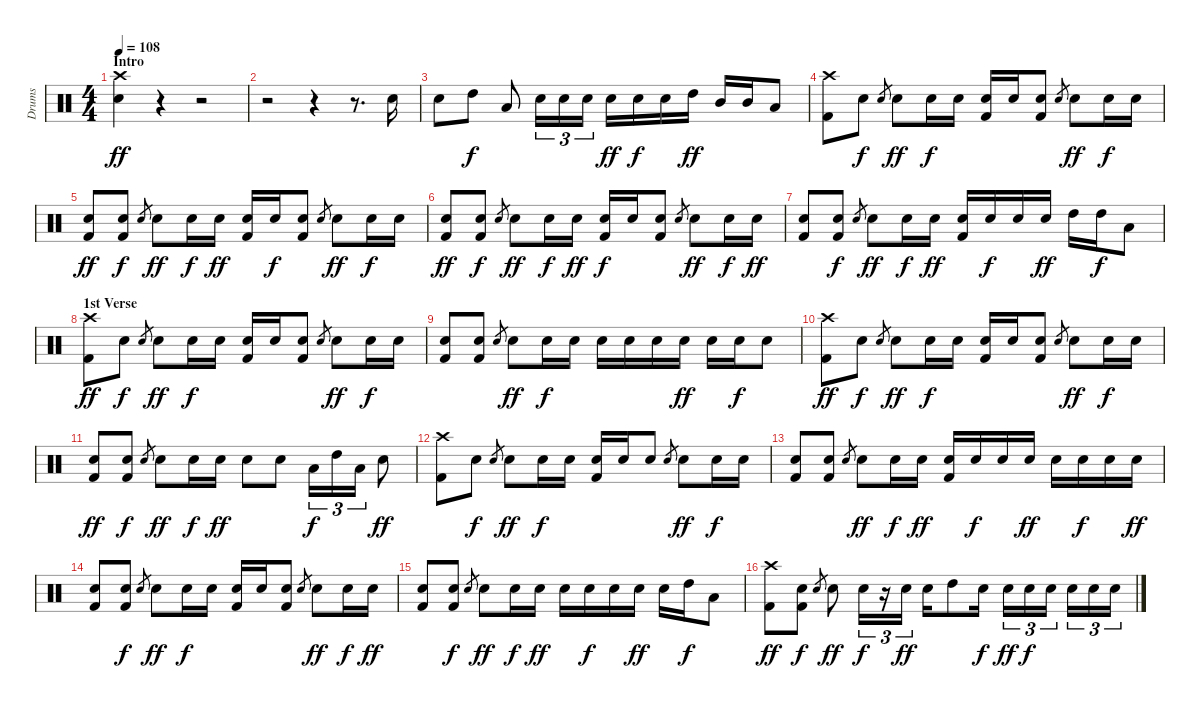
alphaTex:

\track ("Drums" "Drums") {instrument percussion}
\staff {score}
\articulation defaults
\ts (4 4)
\section ("" "Intro")
\tempo 108
\clef neutral
\ks c
("Crash high (hit)" "Electric Snare (hit)").4{dy ff} r.4 r.2 |
r.2 r.4 r.8{d} "Electric Snare (hit)".16 |
"Electric Snare (hit)".8 "High Tom (hit)".8{dy f} "Low Tom (hit)".8 "Electric Snare (hit)".16{tu (3 2)} "Electric Snare (hit)".16{tu (3 2)} "Electric Snare (hit)".16{tu (3 2)} "Electric Snare (hit)".16{dy ff} "Electric Snare (hit)".16{dy f} "Electric Snare (hit)".16 "High Tom (hit)".16{dy ff} "Mid Tom (hit)".16 "Mid Tom (hit)".16 "Low Tom (hit)".8 |
("Crash high (hit)" "Kick (hit) 2").8 "Electric Snare (hit)".8{dy f} "Electric Snare (hit)".8{gr} "Electric Snare (hit)".8{dy ff} "Electric Snare (hit)".16{dy f} "Electric Snare (hit)".16 ("Electric Snare (hit)" "Kick (hit) 2").16 "Electric Snare (hit)".16 ("Electric Snare (hit)" "Kick (hit) 2").8 "Electric Snare (hit)".8{gr} "Electric Snare (hit)".8{dy ff} "Electric Snare (hit)".16{dy f} "Electric Snare (hit)".16 |
("Electric Snare (hit)" "Kick (hit) 2").8{dy ff} ("Electric Snare (hit)" "Kick (hit) 2").8{dy f} "Electric Snare (hit)".8{gr} "Electric Snare (hit)".8{dy ff} "Electric Snare (hit)".16{dy f} "Electric Snare (hit)".16{dy ff} ("Electric Snare (hit)" "Kick (hit) 2").16 "Electric Snare (hit)".16{dy f} ("Electric Snare (hit)" "Kick (hit) 2").8 "Electric Snare (hit)".8{gr} "Electric Snare (hit)".8{dy ff} "Electric Snare (hit)".16{dy f} "Electric Snare (hit)".16 |
("Electric Snare (hit)" "Kick (hit) 2").8{dy ff} ("Electric Snare (hit)" "Kick (hit) 2").8{dy f} "Electric Snare (hit)".8{gr} "Electric Snare (hit)".8{dy ff} "Electric Snare (hit)".16{dy f} "Electric Snare (hit)".16{dy ff} ("Electric Snare (hit)" "Kick (hit) 2").16{dy f} "Electric Snare (hit)".16 ("Electric Snare (hit)" "Kick (hit) 2").8 "Electric Snare (hit)".8{gr} "Electric Snare (hit)".8{dy ff} "Electric Snare (hit)".16{dy f} "Electric Snare (hit)".16{dy ff} |
("Electric Snare (hit)" "Kick (hit) 2").8 ("Electric Snare (hit)" "Kick (hit) 2").8{dy f} "Electric Snare (hit)".8{gr} "Electric Snare (hit)".8{dy ff} "Electric Snare (hit)".16{dy f} "Electric Snare (hit)".16{dy ff} ("Electric Snare (hit)" "Kick (hit) 2").16 "Electric Snare (hit)".16{dy f} "Electric Snare (hit)".16 "Electric Snare (hit)".16{dy ff} "High Tom (hit)".16 "High Tom (hit)".16{dy f} "Low Tom (hit)".8 |
\section ("" "1st Verse")
("Crash high (hit)" "Kick (hit) 2").8{dy ff} "Electric Snare (hit)".8{dy f} "Electric Snare (hit)".8{gr} "Electric Snare (hit)".8{dy ff} "Electric Snare (hit)".16{dy f} "Electric Snare (hit)".16 ("Electric Snare (hit)" "Kick (hit) 2").16 "Electric Snare (hit)".16 ("Electric Snare (hit)" "Kick (hit) 2").8 "Electric Snare (hit)".8{gr} "Electric Snare (hit)".8{dy ff} "Electric Snare (hit)".16{dy f} "Electric Snare (hit)".16 |
("Electric Snare (hit)" "Kick (hit) 2").8 ("Electric Snare (hit)" "Kick (hit) 2").8 "Electric Snare (hit)".8{gr} "Electric Snare (hit)".8{dy ff} "Electric Snare (hit)".16{dy f} "Electric Snare (hit)".16 "Electric Snare (hit)".16 "Electric Snare (hit)".16 "Electric Snare (hit)".16 "Electric Snare (hit)".16{dy ff} "Electric Snare (hit)".16 "Electric Snare (hit)".16{dy f} "Electric Snare (hit)".8 |
("Crash high (hit)" "Kick (hit) 2").8{dy ff} "Electric Snare (hit)".8{dy f} "Electric Snare (hit)".8{gr} "Electric Snare (hit)".8{dy ff} "Electric Snare (hit)".16{dy f} "Electric Snare (hit)".16 ("Electric Snare (hit)" "Kick (hit) 2").16 "Electric Snare (hit)".16 ("Electric Snare (hit)" "Kick (hit) 2").8 "Electric Snare (hit)".8{gr} "Electric Snare (hit)".8{dy ff} "Electric Snare (hit)".16{dy f} "Electric Snare (hit)".16 |
("Electric Snare (hit)" "Kick (hit) 2").8{dy ff} ("Electric Snare (hit)" "Kick (hit) 2").8{dy f} "Electric Snare (hit)".8{gr} "Electric Snare (hit)".8{dy ff} "Electric Snare (hit)".16{dy f} "Electric Snare (hit)".16{dy ff} "Electric Snare (hit)".8 "Electric Snare (hit)".8 "Low Tom (hit)".16{tu (3 2) dy f} "High Tom (hit)".16{tu (3 2)} "Low Tom (hit)".16{tu (3 2)} "Electric Snare (hit)".8{dy ff} |
("Crash high (hit)" "Kick (hit) 2").8 "Electric Snare (hit)".8{dy f} "Electric Snare (hit)".8{gr} "Electric Snare (hit)".8{dy ff} "Electric Snare (hit)".16{dy f} "Electric Snare (hit)".16 ("Electric Snare (hit)" "Kick (hit) 2").16 "Electric Snare (hit)".16 "Electric Snare (hit)".8 "Electric Snare (hit)".8{gr} "Electric Snare (hit)".8{dy ff} "Electric Snare (hit)".16{dy f} "Electric Snare (hit)".16 |
("Electric Snare (hit)" "Kick (hit) 2").8 ("Electric Snare (hit)" "Kick (hit) 2").8 "Electric Snare (hit)".8{gr} "Electric Snare (hit)".8{dy ff} "Electric Snare (hit)".16{dy f} "Electric Snare (hit)".16{dy ff} ("Electric Snare (hit)" "Kick (hit) 2").16 "Electric Snare (hit)".16{dy f} "Electric Snare (hit)".16 "Electric Snare (hit)".16{dy ff} "Electric Snare (hit)".16 "Electric Snare (hit)".16{dy f} "Electric Snare (hit)".16 "Electric Snare (hit)".16{dy ff} |
("Electric Snare (hit)" "Kick (hit) 2").8 ("Electric Snare (hit)" "Kick (hit) 2").8{dy f} "Electric Snare (hit)".8{gr} "Electric Snare (hit)".8{dy ff} "Electric Snare (hit)".16{dy f} "Electric Snare (hit)".16 ("Electric Snare (hit)" "Kick (hit) 2").16 "Electric Snare (hit)".16 ("Electric Snare (hit)" "Kick (hit) 2").8 "Electric Snare (hit)".8{gr} "Electric Snare (hit)".8{dy ff} "Electric Snare (hit)".16{dy f} "Electric Snare (hit)".16{dy ff} |
("Electric Snare (hit)" "Kick (hit) 2").8 ("Electric Snare (hit)" "Kick (hit) 2").8{dy f} "Electric Snare (hit)".8{gr} "Electric Snare (hit)".8{dy ff} "Electric Snare (hit)".16{dy f} "Electric Snare (hit)".16{dy ff} "Electric Snare (hit)".16 "Electric Snare (hit)".16{dy f} "Electric Snare (hit)".16 "Electric Snare (hit)".16{dy ff} "Electric Snare (hit)".16 "High Tom (hit)".16{dy f} "Low Tom (hit)".8 |
("Crash high (hit)" "Kick (hit) 2").8{dy ff} ("Electric Snare (hit)" "Kick (hit) 2").8{dy f} "Electric Snare (hit)".8{gr} "Electric Snare (hit)".8{dy ff} "Electric Snare (hit)".16{tu (3 2) dy f} r.16{tu (3 2)} "Electric Snare (hit)".16{tu (3 2) dy ff} "Electric Snare (hit)".16 "High Tom (hit)".8 "Electric Snare (hit)".16{dy f} "Electric Snare (hit)".16{tu (3 2) dy ff} "Electric Snare (hit)".16{tu (3 2) dy f} "Electric Snare (hit)".16{tu (3 2)} "Electric Snare (hit)".16{tu (3 2)} "Electric Snare (hit)".16{tu (3 2)} "Electric Snare (hit)".16{tu (3 2)}
